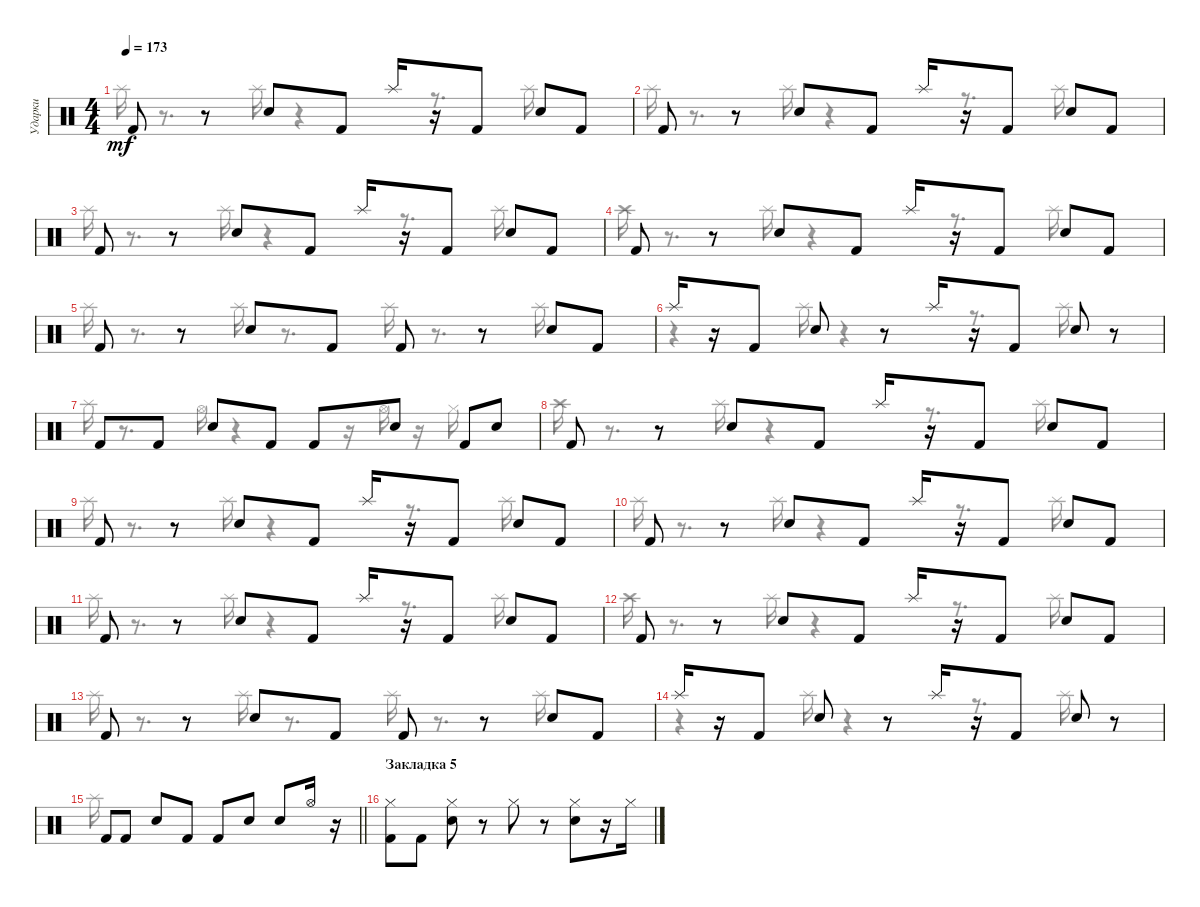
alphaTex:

\track ("Ударки" "Ударки") {instrument percussion}
\staff {score}
\articulation defaults
\voice
\ts (4 4)
\tempo 173
\clef neutral
\ks aminor "Kick (hit) 2".8{dy mf}
r.8 "Snare (hit) 2".8 "Kick (hit) 2".8 "Splash (hit)".16 r.16 "Kick (hit) 2".8 "Snare (hit) 2".8 "Kick (hit) 2".8 |
"Kick (hit) 2".8 r.8 "Snare (hit) 2".8 "Kick (hit) 2".8 "Splash (hit)".16 r.16 "Kick (hit) 2".8 "Snare (hit) 2".8 "Kick (hit) 2".8 |
"Kick (hit) 2".8 r.8 "Snare (hit) 2".8 "Kick (hit) 2".8 "Splash (hit)".16 r.16 "Kick (hit) 2".8 "Snare (hit) 2".8 "Kick (hit) 2".8 |
"Kick (hit) 2".8 r.8 "Snare (hit) 2".8 "Kick (hit) 2".8 "Splash (hit)".16 r.16 "Kick (hit) 2".8 "Snare (hit) 2".8 "Kick (hit) 2".8 |
"Kick (hit) 2".8 r.8 "Snare (hit) 2".8 "Kick (hit) 2".8 "Kick (hit) 2".8 r.8 "Snare (hit) 2".8 "Kick (hit) 2".8 |
"Splash (hit)".16 r.16 "Kick (hit) 2".8 "Snare (hit) 2".8 r.8 "Splash (hit)".16 r.16 "Kick (hit) 2".8 "Snare (hit) 2".8 r.8 |
"Kick (hit) 2".8 "Kick (hit) 2".8 "Snare (hit) 2".8 "Kick (hit) 2".8 "Kick (hit) 2".8 "Snare (hit) 2".8 "Kick (hit) 2".8 "Snare (hit) 2".8 |
\ks c "Kick (hit) 2".8
r.8 "Snare (hit) 2".8 "Kick (hit) 2".8 "Splash (hit)".16 r.16 "Kick (hit) 2".8 "Snare (hit) 2".8 "Kick (hit) 2".8 |
\ks aminor "Kick (hit) 2".8
r.8 "Snare (hit) 2".8 "Kick (hit) 2".8 "Splash (hit)".16 r.16 "Kick (hit) 2".8 "Snare (hit) 2".8 "Kick (hit) 2".8 |
"Kick (hit) 2".8 r.8 "Snare (hit) 2".8 "Kick (hit) 2".8 "Splash (hit)".16 r.16 "Kick (hit) 2".8 "Snare (hit) 2".8 "Kick (hit) 2".8 |
"Kick (hit) 2".8 r.8 "Snare (hit) 2".8 "Kick (hit) 2".8 "Splash (hit)".16 r.16 "Kick (hit) 2".8 "Snare (hit) 2".8 "Kick (hit) 2".8 |
"Kick (hit) 2".8 r.8 "Snare (hit) 2".8 "Kick (hit) 2".8 "Splash (hit)".16 r.16 "Kick (hit) 2".8 "Snare (hit) 2".8 "Kick (hit) 2".8 |
"Kick (hit) 2".8 r.8 "Snare (hit) 2".8 "Kick (hit) 2".8 "Kick (hit) 2".8 r.8 "Snare (hit) 2".8 "Kick (hit) 2".8 |
"Splash (hit)".16 r.16 "Kick (hit) 2".8 "Snare (hit) 2".8 r.8 "Splash (hit)".16 r.16 "Kick (hit) 2".8 "Snare (hit) 2".8 r.8 |
\barLineRight lightlight "Kick (hit) 2".8 "Kick (hit) 2".8 "Snare (hit) 2".8 "Kick (hit) 2".8 "Kick (hit) 2".8 "Snare (hit) 2".8 "Snare (hit) 2".8 "Hi-Hat (open)".16
r.16 |
\section ("" "Закладка 5")
\ks c
("Hi-Hat (closed)" "Kick (hit) 2").8 "Kick (hit) 2".8 ("Snare (hit) 2" "Hi-Hat (closed)").8 r.8 "Hi-Hat (closed)".8 r.8 ("Snare (hit) 2" "Hi-Hat (closed)").8 r.16 "Hi-Hat (closed)".16
\voice
\clef neutral
\ottava regular
\simile none
\ks aminor "Splash (hit)".16{dy mf}
r.8{d} "Splash (hit)".16 r.4 r.8{d} "Splash (hit)".16 |
"Splash (hit)".16 r.8{d} "Splash (hit)".16 r.4 r.8{d} "Splash (hit)".16 |
"Splash (hit)".16 r.8{d} "Splash (hit)".16 r.4 r.8{d} "Splash (hit)".16 |
"Crash high (hit)".16 r.8{d} "Splash (hit)".16 r.4 r.8{d} "Splash (hit)".16 |
"Splash (hit)".16 r.8{d} "Splash (hit)".16 r.8{d} "Splash (hit)".16 r.8{d} "Splash (hit)".16 |
r.4 "Splash (hit)".16 r.4 r.8{d} "Splash (hit)".16 |
"Splash (hit)".16 r.8{d} "Hi-Hat (open)".16 r.4 r.16 "Hi-Hat (open)".16 r.16 "Hi-Hat (closed)".16 |
\ks c "Crash high (hit)".16
r.8{d} "Splash (hit)".16 r.4 r.8{d} "Splash (hit)".16 |
\ks aminor "Splash (hit)".16
r.8{d} "Splash (hit)".16 r.4 r.8{d} "Splash (hit)".16 |
"Splash (hit)".16 r.8{d} "Splash (hit)".16 r.4 r.8{d} "Splash (hit)".16 |
"Splash (hit)".16 r.8{d} "Splash (hit)".16 r.4 r.8{d} "Splash (hit)".16 |
"Crash high (hit)".16 r.8{d} "Splash (hit)".16 r.4 r.8{d} "Splash (hit)".16 |
"Splash (hit)".16 r.8{d} "Splash (hit)".16 r.8{d} "Splash (hit)".16 r.8{d} "Splash (hit)".16 |
r.4 "Splash (hit)".16 r.4 r.8{d} "Splash (hit)".16 |
\barLineRight lightlight "Splash (hit)".16
|
\ks c
